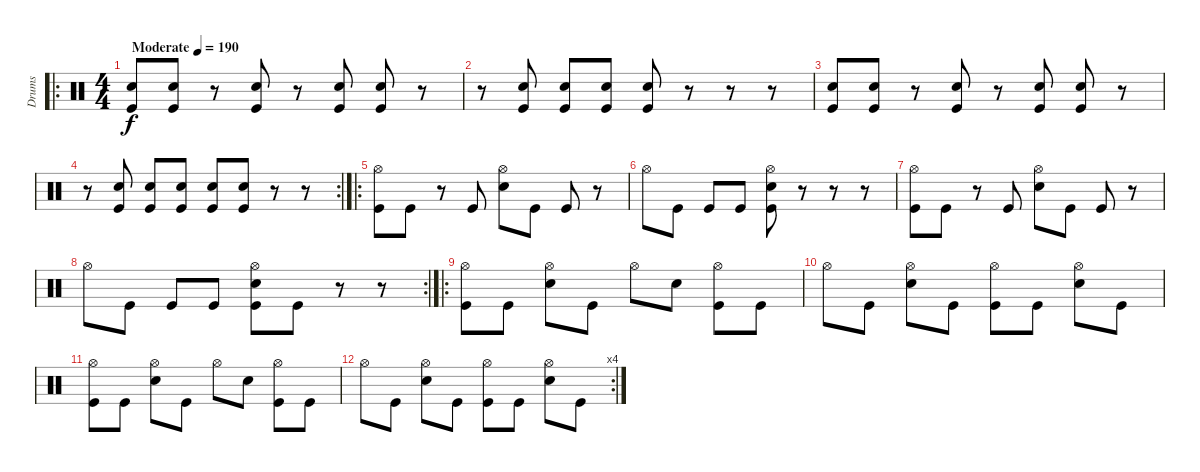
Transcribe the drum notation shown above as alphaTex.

\track ("Drums" "Drums") {instrument percussion}
\staff {score}
\articulation defaults
\ro
\ts (4 4)
\tempo (190 "Moderate")
\clef neutral
\ks c
("Snare (hit) 2" "Kick (hit)").8{dy f} ("Snare (hit) 2" "Kick (hit)").8 r.8 ("Snare (hit) 2" "Kick (hit)").8 r.8 ("Snare (hit) 2" "Kick (hit)").8 ("Snare (hit) 2" "Kick (hit)").8 r.8 |
r.8 ("Snare (hit) 2" "Kick (hit)").8 ("Snare (hit) 2" "Kick (hit)").8 ("Snare (hit) 2" "Kick (hit)").8 ("Snare (hit) 2" "Kick (hit)").8 r.8 r.8 r.8 |
("Snare (hit) 2" "Kick (hit)").8 ("Snare (hit) 2" "Kick (hit)").8 r.8 ("Snare (hit) 2" "Kick (hit)").8 r.8 ("Snare (hit) 2" "Kick (hit)").8 ("Snare (hit) 2" "Kick (hit)").8 r.8 |
\rc 2
r.8 ("Snare (hit) 2" "Kick (hit)").8 ("Snare (hit) 2" "Kick (hit)").8 ("Snare (hit) 2" "Kick (hit)").8 ("Snare (hit) 2" "Kick (hit)").8 ("Snare (hit) 2" "Kick (hit)").8 r.8 r.8 |
\ro
("Hi-Hat (open)" "Kick (hit)").8 "Kick (hit)".8 r.8 "Kick (hit)".8 ("Hi-Hat (open)" "Snare (hit) 2").8 "Kick (hit)".8 "Kick (hit)".8 r.8 |
"Hi-Hat (open)".8 "Kick (hit)".8 "Kick (hit)".8 "Kick (hit)".8 ("Hi-Hat (open)" "Snare (hit) 2" "Kick (hit)").8 r.8 r.8 r.8 |
("Hi-Hat (open)" "Kick (hit)").8 "Kick (hit)".8 r.8 "Kick (hit)".8 ("Hi-Hat (open)" "Snare (hit) 2").8 "Kick (hit)".8 "Kick (hit)".8 r.8 |
\rc 2 "Hi-Hat (open)".8 "Kick (hit)".8 "Kick (hit)".8 "Kick (hit)".8
("Hi-Hat (open)" "Snare (hit) 2" "Kick (hit)").8 "Kick (hit)".8 r.8 r.8 |
\ro
("Hi-Hat (open)" "Kick (hit)").8 "Kick (hit)".8 ("Hi-Hat (open)" "Snare (hit) 2").8 "Kick (hit)".8 "Hi-Hat (open)".8 "Snare (hit) 2".8 ("Hi-Hat (open)" "Kick (hit)").8 "Kick (hit)".8 |
"Hi-Hat (open)".8 "Kick (hit)".8 ("Hi-Hat (open)" "Snare (hit) 2").8 "Kick (hit)".8 ("Hi-Hat (open)" "Kick (hit)").8 "Kick (hit)".8 ("Hi-Hat (open)" "Snare (hit) 2").8 "Kick (hit)".8 |
("Hi-Hat (open)" "Kick (hit)").8 "Kick (hit)".8 ("Hi-Hat (open)" "Snare (hit) 2").8 "Kick (hit)".8 "Hi-Hat (open)".8 "Snare (hit) 2".8 ("Hi-Hat (open)" "Kick (hit)").8 "Kick (hit)".8 |
\rc 4 "Hi-Hat (open)".8 "Kick (hit)".8
("Hi-Hat (open)" "Snare (hit) 2").8 "Kick (hit)".8 ("Hi-Hat (open)" "Kick (hit)").8 "Kick (hit)".8 ("Hi-Hat (open)" "Snare (hit) 2").8 "Kick (hit)".8
